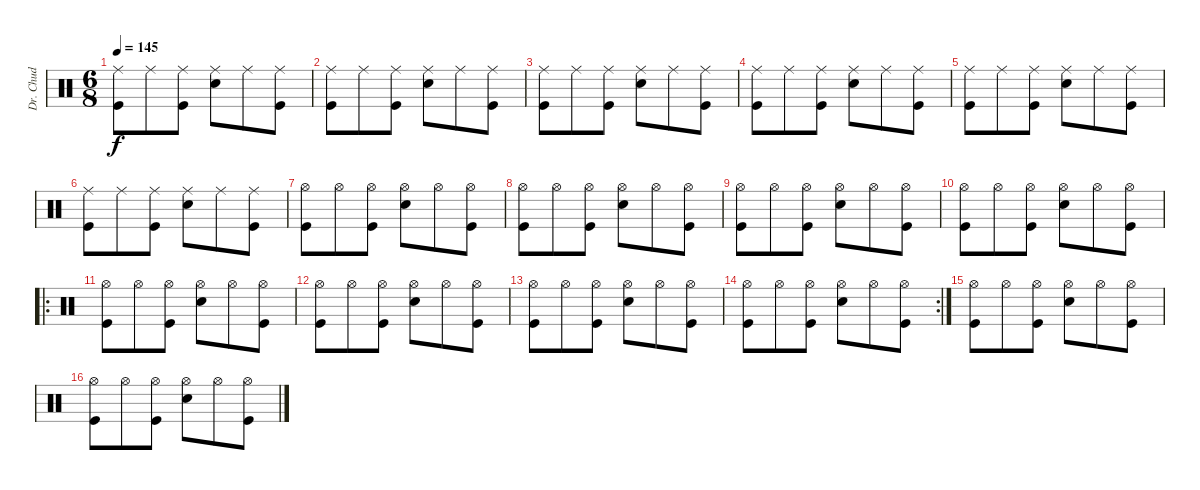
\track ("Dr. Chud" "Dr. Chud") {instrument percussion}
\staff {score}
\articulation defaults
\ts (6 8)
\tempo 145
\clef neutral
\ks c
("Ride (middle)" "Kick (hit)").8{dy f} "Ride (middle)".8 ("Ride (middle)" "Kick (hit)").8 ("Ride (middle)" "Snare (hit) 2").8 "Ride (middle)".8 ("Ride (middle)" "Kick (hit)").8 |
("Ride (middle)" "Kick (hit)").8 "Ride (middle)".8 ("Ride (middle)" "Kick (hit)").8 ("Ride (middle)" "Snare (hit) 2").8 "Ride (middle)".8 ("Ride (middle)" "Kick (hit)").8 |
("Ride (middle)" "Kick (hit)").8 "Ride (middle)".8 ("Ride (middle)" "Kick (hit)").8 ("Ride (middle)" "Snare (hit) 2").8 "Ride (middle)".8 ("Ride (middle)" "Kick (hit)").8 |
("Ride (middle)" "Kick (hit)").8 "Ride (middle)".8 ("Ride (middle)" "Kick (hit)").8 ("Ride (middle)" "Snare (hit) 2").8 "Ride (middle)".8 ("Ride (middle)" "Kick (hit)").8 |
("Ride (middle)" "Kick (hit)").8 "Ride (middle)".8 ("Ride (middle)" "Kick (hit)").8 ("Ride (middle)" "Snare (hit) 2").8 "Ride (middle)".8 ("Ride (middle)" "Kick (hit)").8 |
("Ride (middle)" "Kick (hit)").8 "Ride (middle)".8 ("Ride (middle)" "Kick (hit)").8 ("Ride (middle)" "Snare (hit) 2").8 "Ride (middle)".8 ("Ride (middle)" "Kick (hit)").8 |
("Hi-Hat (open)" "Kick (hit)").8 "Hi-Hat (open)".8 ("Hi-Hat (open)" "Kick (hit)").8 ("Hi-Hat (open)" "Snare (hit) 2").8 "Hi-Hat (open)".8 ("Hi-Hat (open)" "Kick (hit)").8 |
("Hi-Hat (open)" "Kick (hit)").8 "Hi-Hat (open)".8 ("Hi-Hat (open)" "Kick (hit)").8 ("Hi-Hat (open)" "Snare (hit) 2").8 "Hi-Hat (open)".8 ("Hi-Hat (open)" "Kick (hit)").8 |
("Hi-Hat (open)" "Kick (hit)").8 "Hi-Hat (open)".8 ("Hi-Hat (open)" "Kick (hit)").8 ("Hi-Hat (open)" "Snare (hit) 2").8 "Hi-Hat (open)".8 ("Hi-Hat (open)" "Kick (hit)").8 |
("Hi-Hat (open)" "Kick (hit)").8 "Hi-Hat (open)".8 ("Hi-Hat (open)" "Kick (hit)").8 ("Hi-Hat (open)" "Snare (hit) 2").8 "Hi-Hat (open)".8 ("Hi-Hat (open)" "Kick (hit)").8 |
\ro
("Hi-Hat (open)" "Kick (hit)").8 "Hi-Hat (open)".8 ("Hi-Hat (open)" "Kick (hit)").8 ("Hi-Hat (open)" "Snare (hit) 2").8 "Hi-Hat (open)".8 ("Hi-Hat (open)" "Kick (hit)").8 |
("Hi-Hat (open)" "Kick (hit)").8 "Hi-Hat (open)".8 ("Hi-Hat (open)" "Kick (hit)").8 ("Hi-Hat (open)" "Snare (hit) 2").8 "Hi-Hat (open)".8 ("Hi-Hat (open)" "Kick (hit)").8 |
("Hi-Hat (open)" "Kick (hit)").8 "Hi-Hat (open)".8 ("Hi-Hat (open)" "Kick (hit)").8 ("Hi-Hat (open)" "Snare (hit) 2").8 "Hi-Hat (open)".8 ("Hi-Hat (open)" "Kick (hit)").8 |
\rc 2
("Hi-Hat (open)" "Kick (hit)").8 "Hi-Hat (open)".8 ("Hi-Hat (open)" "Kick (hit)").8 ("Hi-Hat (open)" "Snare (hit) 2").8 "Hi-Hat (open)".8 ("Hi-Hat (open)" "Kick (hit)").8 |
("Hi-Hat (open)" "Kick (hit)").8 "Hi-Hat (open)".8 ("Hi-Hat (open)" "Kick (hit)").8 ("Hi-Hat (open)" "Snare (hit) 2").8 "Hi-Hat (open)".8 ("Hi-Hat (open)" "Kick (hit)").8 |
("Hi-Hat (open)" "Kick (hit)").8 "Hi-Hat (open)".8 ("Hi-Hat (open)" "Kick (hit)").8 ("Hi-Hat (open)" "Snare (hit) 2").8 "Hi-Hat (open)".8 ("Hi-Hat (open)" "Kick (hit)").8
